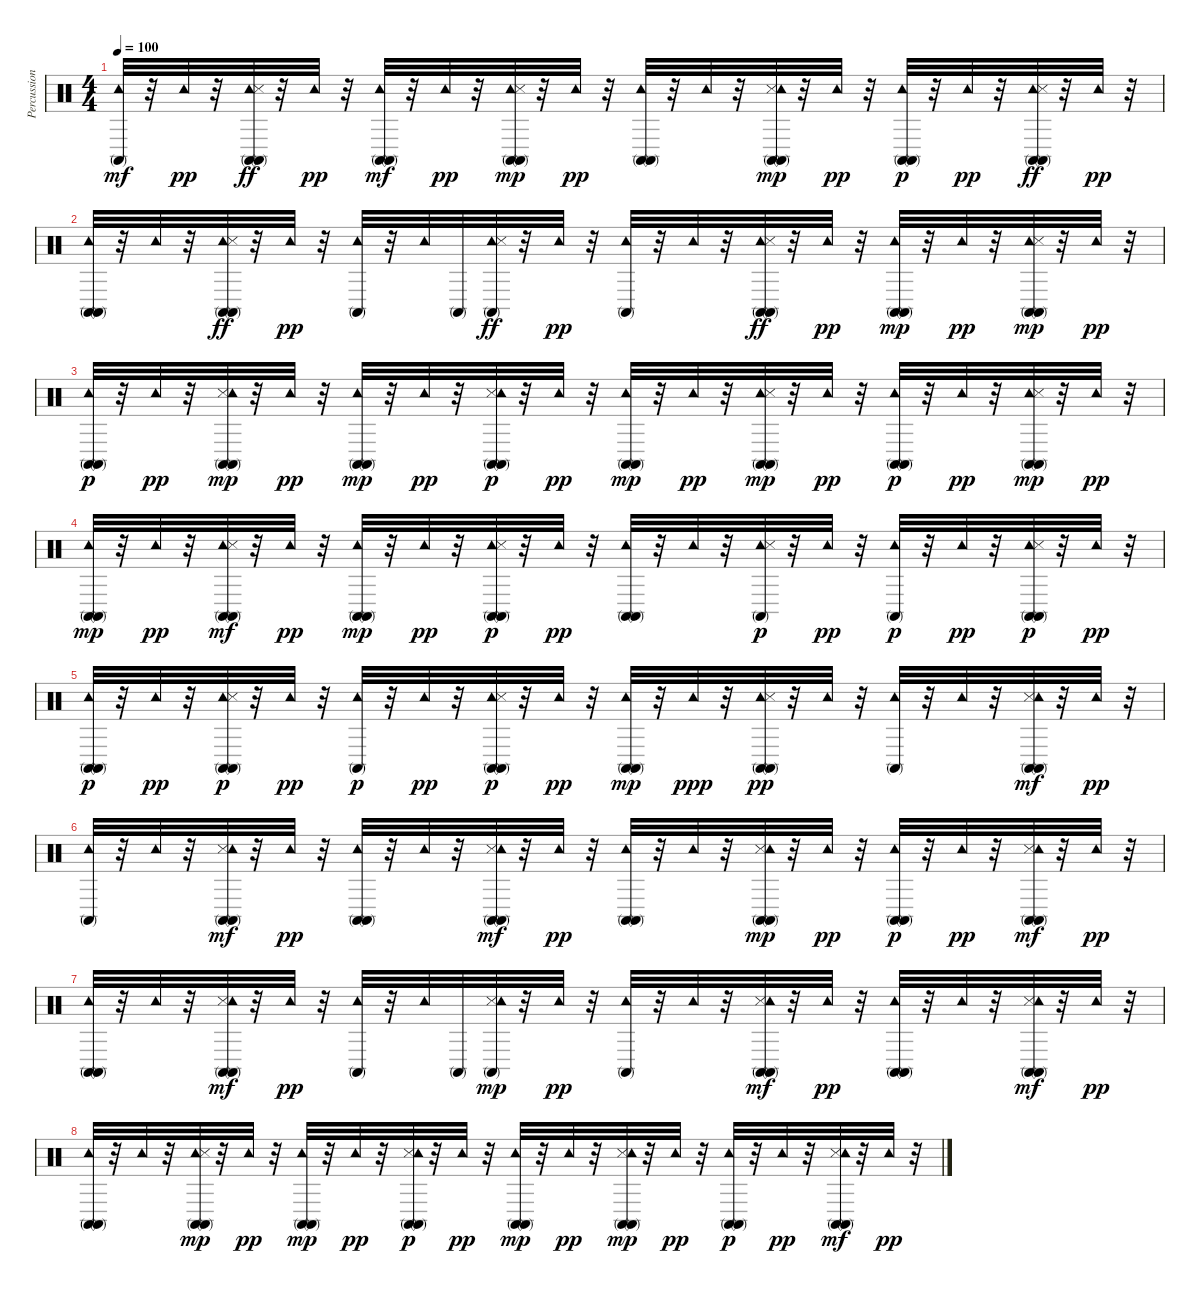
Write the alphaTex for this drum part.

\track ("Percussions" "Percussion") {instrument percussion}
\staff {score}
\articulation defaults
\ts (4 4)
\tempo 100
\clef neutral
\ks c
("Tambourine (hit)" "Conga high (mute)").32{dy mf} r.32 "Tambourine (hit)".32{dy pp} r.32 ("Conga high (mute)" "Tambourine (hit)" "Conga high (mute)" "Snare (side stick) 3").32{dy ff} r.32 "Tambourine (hit)".32{dy pp} r.32 ("Conga high (mute)" "Tambourine (hit)" "Conga high (mute)").32{dy mf} r.32 "Tambourine (hit)".32{dy pp} r.32 ("Conga high (mute)" "Tambourine (hit)" "Conga high (mute)" "Snare (side stick) 3").32{dy mp} r.32 "Tambourine (hit)".32{dy pp} r.32 ("Conga high (mute)" "Conga high (mute)" "Tambourine (hit)").32 r.32 "Tambourine (hit)".32 r.32 ("Conga high (mute)" "Snare (side stick) 3" "Tambourine (hit)" "Conga high (mute)").32{dy mp} r.32 "Tambourine (hit)".32{dy pp} r.32 ("Conga high (mute)" "Tambourine (hit)" "Conga high (mute)").32{dy p} r.32 "Tambourine (hit)".32{dy pp} r.32 ("Conga high (mute)" "Conga high (mute)" "Tambourine (hit)" "Snare (side stick) 3").32{dy ff} r.32 "Tambourine (hit)".32{dy pp} r.32 |
("Conga high (mute)" "Conga high (mute)" "Tambourine (hit)").32 r.32 "Tambourine (hit)".32 r.32 ("Conga high (mute)" "Conga high (mute)" "Tambourine (hit)" "Snare (side stick) 3").32{dy ff} r.32 "Tambourine (hit)".32{dy pp} r.32 ("Conga high (mute)" "Tambourine (hit)").32 r.32 "Tambourine (hit)".32 "Conga high (mute)".32 ("Conga high (mute)" "Tambourine (hit)" "Snare (side stick) 3").32{dy ff} r.32 "Tambourine (hit)".32{dy pp} r.32 ("Conga high (mute)" "Tambourine (hit)").32 r.32 "Tambourine (hit)".32 r.32 ("Conga high (mute)" "Conga high (mute)" "Tambourine (hit)" "Snare (side stick) 3").32{dy ff} r.32 "Tambourine (hit)".32{dy pp} r.32 ("Conga high (mute)" "Tambourine (hit)" "Conga high (mute)").32{dy mp} r.32 "Tambourine (hit)".32{dy pp} r.32 ("Conga high (mute)" "Tambourine (hit)" "Snare (side stick) 3" "Conga high (mute)").32{dy mp} r.32 "Tambourine (hit)".32{dy pp} r.32 |
("Conga high (mute)" "Conga high (mute)" "Tambourine (hit)").32{dy p} r.32 "Tambourine (hit)".32{dy pp} r.32 ("Conga high (mute)" "Snare (side stick) 3" "Tambourine (hit)" "Conga high (mute)").32{dy mp} r.32 "Tambourine (hit)".32{dy pp} r.32 ("Conga high (mute)" "Tambourine (hit)" "Conga high (mute)").32{dy mp} r.32 "Tambourine (hit)".32{dy pp} r.32 ("Conga high (mute)" "Snare (side stick) 3" "Tambourine (hit)" "Conga high (mute)").32{dy p} r.32 "Tambourine (hit)".32{dy pp} r.32 ("Conga high (mute)" "Tambourine (hit)" "Conga high (mute)").32{dy mp} r.32 "Tambourine (hit)".32{dy pp} r.32 ("Conga high (mute)" "Tambourine (hit)" "Snare (side stick) 3" "Conga high (mute)").32{dy mp} r.32 "Tambourine (hit)".32{dy pp} r.32 ("Conga high (mute)" "Tambourine (hit)" "Conga high (mute)").32{dy p} r.32 "Tambourine (hit)".32{dy pp} r.32 ("Conga high (mute)" "Tambourine (hit)" "Conga high (mute)" "Snare (side stick) 3").32{dy mp} r.32 "Tambourine (hit)".32{dy pp} r.32 |
("Tambourine (hit)" "Conga high (mute)" "Conga high (mute)").32{dy mp} r.32 "Tambourine (hit)".32{dy pp} r.32 ("Conga high (mute)" "Tambourine (hit)" "Snare (side stick) 3" "Conga high (mute)").32{dy mf} r.32 "Tambourine (hit)".32{dy pp} r.32 ("Conga high (mute)" "Tambourine (hit)" "Conga high (mute)").32{dy mp} r.32 "Tambourine (hit)".32{dy pp} r.32 ("Conga high (mute)" "Tambourine (hit)" "Snare (side stick) 3" "Conga high (mute)").32{dy p} r.32 "Tambourine (hit)".32{dy pp} r.32 ("Conga high (mute)" "Conga high (mute)" "Tambourine (hit)").32 r.32 "Tambourine (hit)".32 r.32 ("Tambourine (hit)" "Snare (side stick) 3" "Conga high (mute)").32{dy p} r.32 "Tambourine (hit)".32{dy pp} r.32 ("Tambourine (hit)" "Conga high (mute)").32{dy p} r.32 "Tambourine (hit)".32{dy pp} r.32 ("Tambourine (hit)" "Snare (side stick) 3" "Conga high (mute)" "Conga high (mute)").32{dy p} r.32 "Tambourine (hit)".32{dy pp} r.32 |
("Tambourine (hit)" "Conga high (mute)" "Conga high (mute)").32{dy p} r.32 "Tambourine (hit)".32{dy pp} r.32 ("Conga high (mute)" "Tambourine (hit)" "Snare (side stick) 3" "Conga high (mute)").32{dy p} r.32 "Tambourine (hit)".32{dy pp} r.32 ("Tambourine (hit)" "Conga high (mute)").32{dy p} r.32 "Tambourine (hit)".32{dy pp} r.32 ("Tambourine (hit)" "Conga high (mute)" "Snare (side stick) 3" "Conga high (mute)").32{dy p} r.32 "Tambourine (hit)".32{dy pp} r.32 ("Tambourine (hit)" "Conga high (mute)" "Conga high (mute)").32{dy mp} r.32 "Tambourine (hit)".32{dy ppp} r.32 ("Tambourine (hit)" "Snare (side stick) 3" "Conga high (mute)" "Conga high (mute)").32{dy pp} r.32 "Tambourine (hit)".32 r.32 ("Conga high (mute)" "Tambourine (hit)").32 r.32 "Tambourine (hit)".32 r.32 ("Conga high (mute)" "Snare (side stick) 3" "Conga high (mute)" "Tambourine (hit)").32{dy mf} r.32 "Tambourine (hit)".32{dy pp} r.32 |
("Conga high (mute)" "Tambourine (hit)").32 r.32 "Tambourine (hit)".32 r.32 ("Conga high (mute)" "Snare (side stick) 3" "Conga high (mute)" "Tambourine (hit)").32{dy mf} r.32 "Tambourine (hit)".32{dy pp} r.32 ("Conga high (mute)" "Conga high (mute)" "Tambourine (hit)").32 r.32 "Tambourine (hit)".32 r.32 ("Conga high (mute)" "Snare (side stick) 3" "Conga high (mute)" "Tambourine (hit)").32{dy mf} r.32 "Tambourine (hit)".32{dy pp} r.32 ("Conga high (mute)" "Conga high (mute)" "Tambourine (hit)").32 r.32 "Tambourine (hit)".32 r.32 ("Conga high (mute)" "Snare (side stick) 3" "Conga high (mute)" "Tambourine (hit)").32{dy mp} r.32 "Tambourine (hit)".32{dy pp} r.32 ("Conga high (mute)" "Tambourine (hit)" "Conga high (mute)").32{dy p} r.32 "Tambourine (hit)".32{dy pp} r.32 ("Conga high (mute)" "Conga high (mute)" "Snare (side stick) 3" "Tambourine (hit)").32{dy mf} r.32 "Tambourine (hit)".32{dy pp} r.32 |
("Conga high (mute)" "Conga high (mute)" "Tambourine (hit)").32 r.32 "Tambourine (hit)".32 r.32 ("Conga high (mute)" "Conga high (mute)" "Snare (side stick) 3" "Tambourine (hit)").32{dy mf} r.32 "Tambourine (hit)".32{dy pp} r.32 ("Conga high (mute)" "Tambourine (hit)").32 r.32 "Tambourine (hit)".32 "Conga high (mute)".32 ("Conga high (mute)" "Snare (side stick) 3" "Tambourine (hit)").32{dy mp} r.32 "Tambourine (hit)".32{dy pp} r.32 ("Conga high (mute)" "Tambourine (hit)").32 r.32 "Tambourine (hit)".32 r.32 ("Conga high (mute)" "Conga high (mute)" "Snare (side stick) 3" "Tambourine (hit)").32{dy mf} r.32 "Tambourine (hit)".32{dy pp} r.32 ("Conga high (mute)" "Conga high (mute)" "Tambourine (hit)").32 r.32 "Tambourine (hit)".32 r.32 ("Conga high (mute)" "Snare (side stick) 3" "Conga high (mute)" "Tambourine (hit)").32{dy mf} r.32 "Tambourine (hit)".32{dy pp} r.32 |
("Conga high (mute)" "Conga high (mute)" "Tambourine (hit)").32 r.32 "Tambourine (hit)".32 r.32 ("Conga high (mute)" "Tambourine (hit)" "Snare (side stick) 3" "Conga high (mute)").32{dy mp} r.32 "Tambourine (hit)".32{dy pp} r.32 ("Conga high (mute)" "Tambourine (hit)" "Conga high (mute)").32{dy mp} r.32 "Tambourine (hit)".32{dy pp} r.32 ("Conga high (mute)" "Snare (side stick) 3" "Tambourine (hit)" "Conga high (mute)").32{dy p} r.32 "Tambourine (hit)".32{dy pp} r.32 ("Conga high (mute)" "Tambourine (hit)" "Conga high (mute)").32{dy mp} r.32 "Tambourine (hit)".32{dy pp} r.32 ("Conga high (mute)" "Snare (side stick) 3" "Tambourine (hit)" "Conga high (mute)").32{dy mp} r.32 "Tambourine (hit)".32{dy pp} r.32 ("Conga high (mute)" "Tambourine (hit)" "Conga high (mute)").32{dy p} r.32 "Tambourine (hit)".32{dy pp} r.32 ("Conga high (mute)" "Conga high (mute)" "Snare (side stick) 3" "Tambourine (hit)").32{dy mf} r.32 "Tambourine (hit)".32{dy pp} r.32
